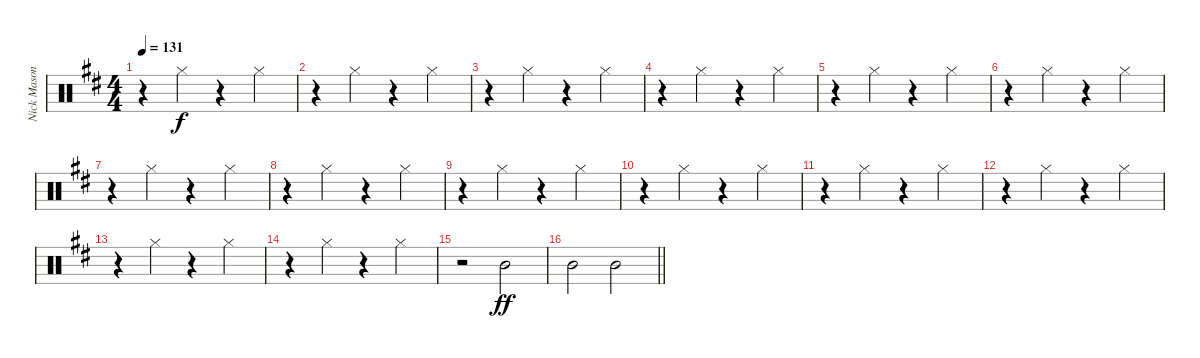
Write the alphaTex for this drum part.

\track ("Nick Mason" "Nick Mason") {instrument percussion}
\staff {score}
\articulation defaults
\ts (4 4)
\tempo 131
\clef neutral
\ks d
r.4{dy f} "Hi-Hat (closed)".4 r.4 "Hi-Hat (closed)".4 |
r.4 "Hi-Hat (closed)".4 r.4 "Hi-Hat (closed)".4 |
r.4 "Hi-Hat (closed)".4 r.4 "Hi-Hat (closed)".4 |
r.4 "Hi-Hat (closed)".4 r.4 "Hi-Hat (closed)".4 |
r.4 "Hi-Hat (closed)".4 r.4 "Hi-Hat (closed)".4 |
r.4 "Hi-Hat (closed)".4 r.4 "Hi-Hat (closed)".4 |
r.4 "Hi-Hat (closed)".4 r.4 "Hi-Hat (closed)".4 |
r.4 "Hi-Hat (closed)".4 r.4 "Hi-Hat (closed)".4 |
r.4 "Hi-Hat (closed)".4 r.4 "Hi-Hat (closed)".4 |
r.4 "Hi-Hat (closed)".4 r.4 "Hi-Hat (closed)".4 |
r.4 "Hi-Hat (closed)".4 r.4 "Hi-Hat (closed)".4 |
r.4 "Hi-Hat (closed)".4 r.4 "Hi-Hat (closed)".4 |
r.4 "Hi-Hat (closed)".4 r.4 "Hi-Hat (closed)".4 |
r.4 "Hi-Hat (closed)".4 r.4 "Hi-Hat (closed)".4 |
r.2{volume 13} "Mid Tom (hit)".2{dy ff} |
\barLineRight lightlight "Mid Tom (hit)".2 "Mid Tom (hit)".2
